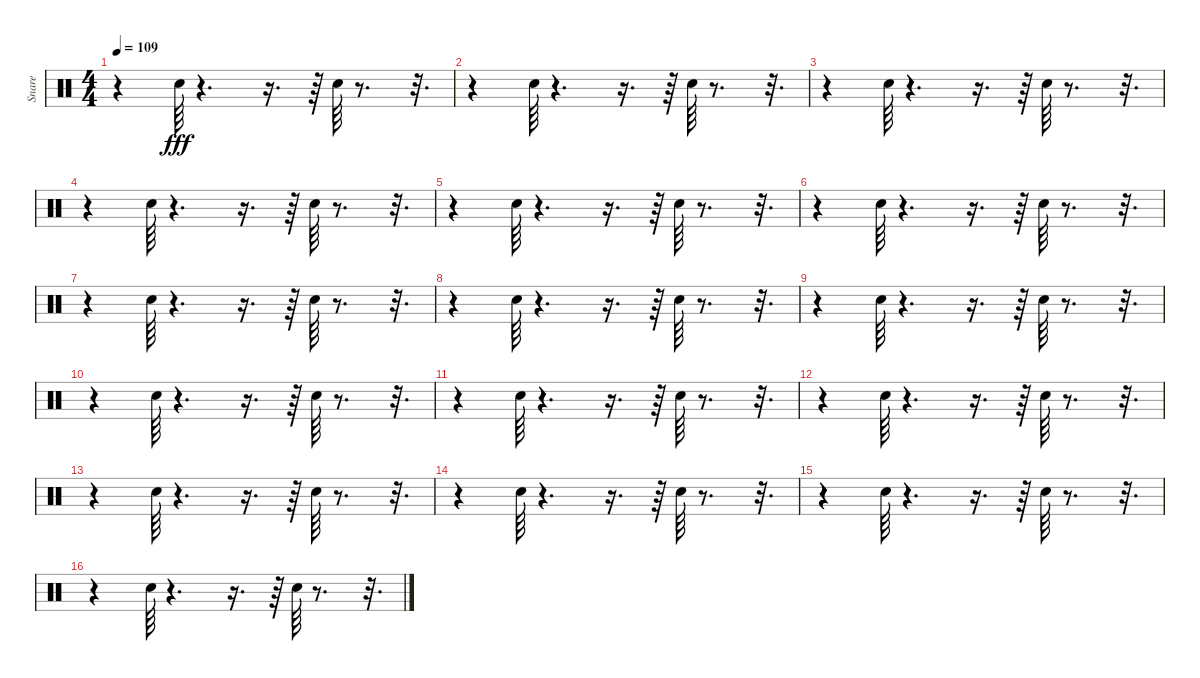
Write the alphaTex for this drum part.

\track ("Snare" "Snare") {instrument percussion}
\staff {score}
\articulation defaults
\ts (4 4)
\tempo 109
\clef neutral
\ks c
r.4{dy fff} "Electric Snare (hit)".64 r.4{d} r.16{d} r.64 "Electric Snare (hit)".64 r.8{d} r.32{d} |
r.4 "Electric Snare (hit)".64 r.4{d} r.16{d} r.64 "Electric Snare (hit)".64 r.8{d} r.32{d} |
r.4 "Electric Snare (hit)".64 r.4{d} r.16{d} r.64 "Electric Snare (hit)".64 r.8{d} r.32{d} |
r.4 "Electric Snare (hit)".64 r.4{d} r.16{d} r.64 "Electric Snare (hit)".64 r.8{d} r.32{d} |
r.4 "Electric Snare (hit)".64 r.4{d} r.16{d} r.64 "Electric Snare (hit)".64 r.8{d} r.32{d} |
r.4 "Electric Snare (hit)".64 r.4{d} r.16{d} r.64 "Electric Snare (hit)".64 r.8{d} r.32{d} |
r.4 "Electric Snare (hit)".64 r.4{d} r.16{d} r.64 "Electric Snare (hit)".64 r.8{d} r.32{d} |
r.4 "Electric Snare (hit)".64 r.4{d} r.16{d} r.64 "Electric Snare (hit)".64 r.8{d} r.32{d} |
r.4 "Electric Snare (hit)".64 r.4{d} r.16{d} r.64 "Electric Snare (hit)".64 r.8{d} r.32{d} |
r.4 "Electric Snare (hit)".64 r.4{d} r.16{d} r.64 "Electric Snare (hit)".64 r.8{d} r.32{d} |
r.4 "Electric Snare (hit)".64 r.4{d} r.16{d} r.64 "Electric Snare (hit)".64 r.8{d} r.32{d} |
r.4 "Electric Snare (hit)".64 r.4{d} r.16{d} r.64 "Electric Snare (hit)".64 r.8{d} r.32{d} |
r.4 "Electric Snare (hit)".64 r.4{d} r.16{d} r.64 "Electric Snare (hit)".64 r.8{d} r.32{d} |
r.4 "Electric Snare (hit)".64 r.4{d} r.16{d} r.64 "Electric Snare (hit)".64 r.8{d} r.32{d} |
r.4 "Electric Snare (hit)".64 r.4{d} r.16{d} r.64 "Electric Snare (hit)".64 r.8{d} r.32{d} |
r.4 "Electric Snare (hit)".64 r.4{d} r.16{d} r.64 "Electric Snare (hit)".64 r.8{d} r.32{d}
